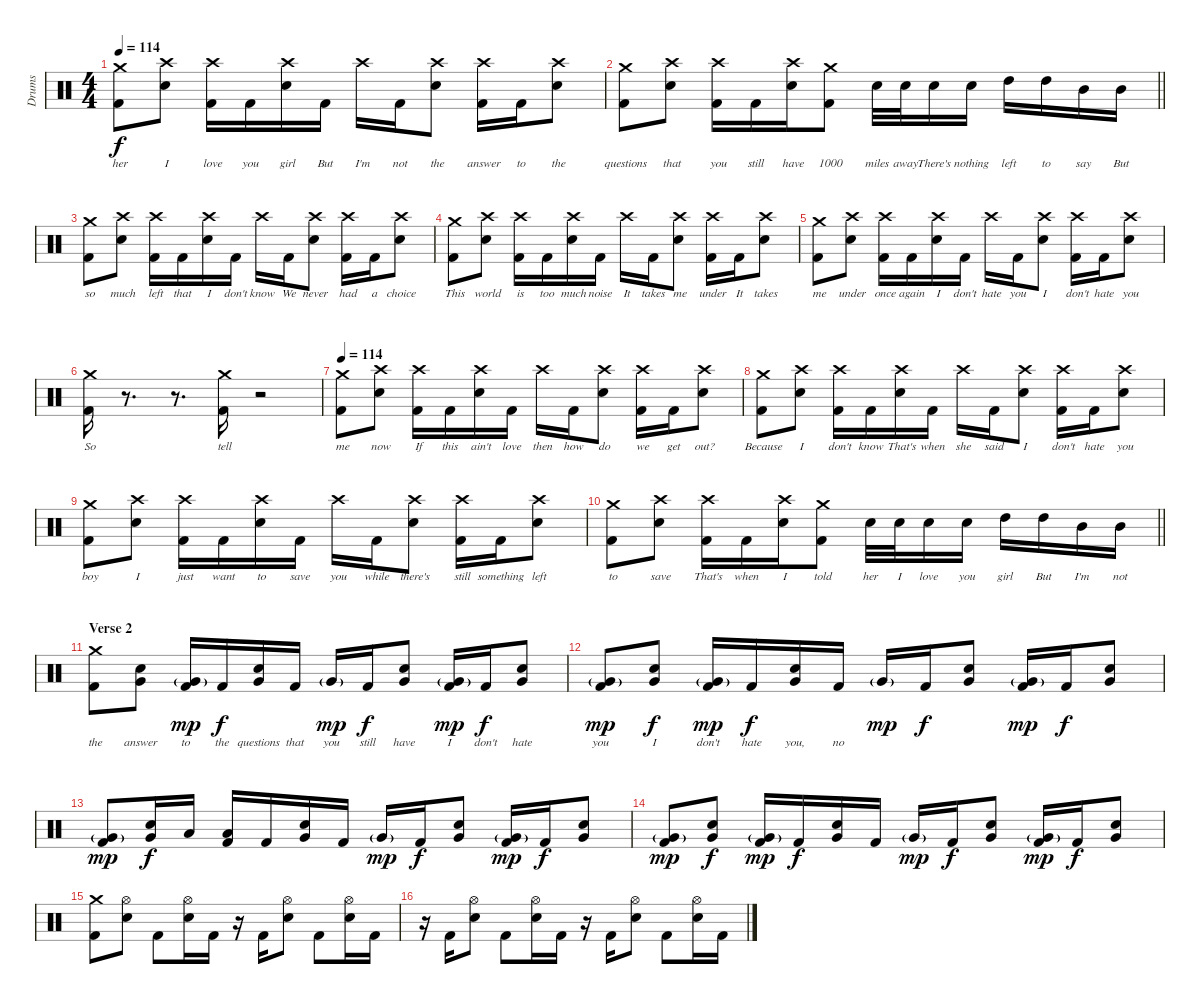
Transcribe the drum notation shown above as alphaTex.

\track ("Drums" "Drums") {instrument percussion}
\staff {score}
\articulation defaults
\ts (4 4)
\tempo 114
\clef neutral
\ks c
("Crash medium (hit)" "Kick (hit) 2").8{lyrics (0 "her") lyrics (1 "") lyrics (2 "") lyrics (3 "") lyrics (4 "") dy f} ("Crash high (hit)" "Electric Snare (hit)").8{lyrics (0 "I") lyrics (1 "") lyrics (2 "") lyrics (3 "") lyrics (4 "")} ("Crash high (hit)" "Kick (hit) 2").16{lyrics (0 "love") lyrics (1 "") lyrics (2 "") lyrics (3 "") lyrics (4 "")} "Kick (hit) 2".16{lyrics (0 "you") lyrics (1 "") lyrics (2 "") lyrics (3 "") lyrics (4 "")} ("Crash high (hit)" "Electric Snare (hit)").16{lyrics (0 "girl") lyrics (1 "") lyrics (2 "") lyrics (3 "") lyrics (4 "")} "Kick (hit) 2".16{lyrics (0 "But") lyrics (1 "") lyrics (2 "") lyrics (3 "") lyrics (4 "")} "Crash high (hit)".16{lyrics (0 "I'm") lyrics (1 "") lyrics (2 "") lyrics (3 "") lyrics (4 "")} "Kick (hit) 2".16{lyrics (0 "not") lyrics (1 "") lyrics (2 "") lyrics (3 "") lyrics (4 "")} ("Crash high (hit)" "Electric Snare (hit)").8{lyrics (0 "the") lyrics (1 "") lyrics (2 "") lyrics (3 "") lyrics (4 "")} ("Crash high (hit)" "Kick (hit) 2").16{lyrics (0 "answer") lyrics (1 "") lyrics (2 "") lyrics (3 "") lyrics (4 "")} "Kick (hit) 2".16{lyrics (0 "to") lyrics (1 "") lyrics (2 "") lyrics (3 "") lyrics (4 "")} ("Crash high (hit)" "Electric Snare (hit)").8{lyrics (0 "the") lyrics (1 "") lyrics (2 "") lyrics (3 "") lyrics (4 "")} |
\barLineRight lightlight
("Crash medium (hit)" "Kick (hit) 2").8{lyrics (0 "questions") lyrics (1 "") lyrics (2 "") lyrics (3 "") lyrics (4 "")} ("Crash high (hit)" "Electric Snare (hit)").8{lyrics (0 "that") lyrics (1 "") lyrics (2 "") lyrics (3 "") lyrics (4 "")} ("Crash high (hit)" "Kick (hit) 2").16{lyrics (0 "you") lyrics (1 "") lyrics (2 "") lyrics (3 "") lyrics (4 "")} "Kick (hit) 2".16{lyrics (0 "still") lyrics (1 "") lyrics (2 "") lyrics (3 "") lyrics (4 "")} ("Crash high (hit)" "Electric Snare (hit)").16{lyrics (0 "have") lyrics (1 "") lyrics (2 "") lyrics (3 "") lyrics (4 "")} ("Crash medium (hit)" "Kick (hit) 2").8{lyrics (0 "1000") lyrics (1 "") lyrics (2 "") lyrics (3 "") lyrics (4 "")} "Electric Snare (hit)".32{lyrics (0 "miles") lyrics (1 "") lyrics (2 "") lyrics (3 "") lyrics (4 "")} "Electric Snare (hit)".32{lyrics (0 "away") lyrics (1 "") lyrics (2 "") lyrics (3 "") lyrics (4 "")} "Electric Snare (hit)".16{lyrics (0 "There's") lyrics (1 "") lyrics (2 "") lyrics (3 "") lyrics (4 "")} "Electric Snare (hit)".16{lyrics (0 "nothing") lyrics (1 "") lyrics (2 "") lyrics (3 "") lyrics (4 "")} "High Tom (hit)".16{lyrics (0 "left") lyrics (1 "") lyrics (2 "") lyrics (3 "") lyrics (4 "")} "High Tom (hit)".16{lyrics (0 "to") lyrics (1 "") lyrics (2 "") lyrics (3 "") lyrics (4 "")} "Mid Tom (hit)".16{lyrics (0 "say") lyrics (1 "") lyrics (2 "") lyrics (3 "") lyrics (4 "")} "Mid Tom (hit)".16{lyrics (0 "But") lyrics (1 "") lyrics (2 "") lyrics (3 "") lyrics (4 "")} |
("Crash medium (hit)" "Kick (hit) 2").8{lyrics (0 "so") lyrics (1 "") lyrics (2 "") lyrics (3 "") lyrics (4 "")} ("Crash high (hit)" "Electric Snare (hit)").8{lyrics (0 "much") lyrics (1 "") lyrics (2 "") lyrics (3 "") lyrics (4 "")} ("Crash high (hit)" "Kick (hit) 2").16{lyrics (0 "left") lyrics (1 "") lyrics (2 "") lyrics (3 "") lyrics (4 "")} "Kick (hit) 2".16{lyrics (0 "that") lyrics (1 "") lyrics (2 "") lyrics (3 "") lyrics (4 "")} ("Crash high (hit)" "Electric Snare (hit)").16{lyrics (0 "I") lyrics (1 "") lyrics (2 "") lyrics (3 "") lyrics (4 "")} "Kick (hit) 2".16{lyrics (0 "don't") lyrics (1 "") lyrics (2 "") lyrics (3 "") lyrics (4 "")} "Crash high (hit)".16{lyrics (0 "know") lyrics (1 "") lyrics (2 "") lyrics (3 "") lyrics (4 "")} "Kick (hit) 2".16{lyrics (0 "We") lyrics (1 "") lyrics (2 "") lyrics (3 "") lyrics (4 "")} ("Crash high (hit)" "Electric Snare (hit)").8{lyrics (0 "never") lyrics (1 "") lyrics (2 "") lyrics (3 "") lyrics (4 "")} ("Crash high (hit)" "Kick (hit) 2").16{lyrics (0 "had") lyrics (1 "") lyrics (2 "") lyrics (3 "") lyrics (4 "")} "Kick (hit) 2".16{lyrics (0 "a") lyrics (1 "") lyrics (2 "") lyrics (3 "") lyrics (4 "")} ("Crash high (hit)" "Electric Snare (hit)").8{lyrics (0 "choice") lyrics (1 "") lyrics (2 "") lyrics (3 "") lyrics (4 "")} |
("Crash medium (hit)" "Kick (hit) 2").8{lyrics (0 "This") lyrics (1 "") lyrics (2 "") lyrics (3 "") lyrics (4 "")} ("Crash high (hit)" "Electric Snare (hit)").8{lyrics (0 "world") lyrics (1 "") lyrics (2 "") lyrics (3 "") lyrics (4 "")} ("Crash high (hit)" "Kick (hit) 2").16{lyrics (0 "is") lyrics (1 "") lyrics (2 "") lyrics (3 "") lyrics (4 "")} "Kick (hit) 2".16{lyrics (0 "too") lyrics (1 "") lyrics (2 "") lyrics (3 "") lyrics (4 "")} ("Crash high (hit)" "Electric Snare (hit)").16{lyrics (0 "much") lyrics (1 "") lyrics (2 "") lyrics (3 "") lyrics (4 "")} "Kick (hit) 2".16{lyrics (0 "noise") lyrics (1 "") lyrics (2 "") lyrics (3 "") lyrics (4 "")} "Crash high (hit)".16{lyrics (0 "It") lyrics (1 "") lyrics (2 "") lyrics (3 "") lyrics (4 "")} "Kick (hit) 2".16{lyrics (0 "takes") lyrics (1 "") lyrics (2 "") lyrics (3 "") lyrics (4 "")} ("Crash high (hit)" "Electric Snare (hit)").8{lyrics (0 "me") lyrics (1 "") lyrics (2 "") lyrics (3 "") lyrics (4 "")} ("Crash high (hit)" "Kick (hit) 2").16{lyrics (0 "under") lyrics (1 "") lyrics (2 "") lyrics (3 "") lyrics (4 "")} "Kick (hit) 2".16{lyrics (0 "It") lyrics (1 "") lyrics (2 "") lyrics (3 "") lyrics (4 "")} ("Crash high (hit)" "Electric Snare (hit)").8{lyrics (0 "takes") lyrics (1 "") lyrics (2 "") lyrics (3 "") lyrics (4 "")} |
("Crash medium (hit)" "Kick (hit) 2").8{lyrics (0 "me") lyrics (1 "") lyrics (2 "") lyrics (3 "") lyrics (4 "")} ("Crash high (hit)" "Electric Snare (hit)").8{lyrics (0 "under") lyrics (1 "") lyrics (2 "") lyrics (3 "") lyrics (4 "")} ("Crash high (hit)" "Kick (hit) 2").16{lyrics (0 "once") lyrics (1 "") lyrics (2 "") lyrics (3 "") lyrics (4 "")} "Kick (hit) 2".16{lyrics (0 "again") lyrics (1 "") lyrics (2 "") lyrics (3 "") lyrics (4 "")} ("Crash high (hit)" "Electric Snare (hit)").16{lyrics (0 "I") lyrics (1 "") lyrics (2 "") lyrics (3 "") lyrics (4 "")} "Kick (hit) 2".16{lyrics (0 "don't") lyrics (1 "") lyrics (2 "") lyrics (3 "") lyrics (4 "")} "Crash high (hit)".16{lyrics (0 "hate") lyrics (1 "") lyrics (2 "") lyrics (3 "") lyrics (4 "")} "Kick (hit) 2".16{lyrics (0 "you") lyrics (1 "") lyrics (2 "") lyrics (3 "") lyrics (4 "")} ("Crash high (hit)" "Electric Snare (hit)").8{lyrics (0 "I") lyrics (1 "") lyrics (2 "") lyrics (3 "") lyrics (4 "")} ("Crash high (hit)" "Kick (hit) 2").16{lyrics (0 "don't") lyrics (1 "") lyrics (2 "") lyrics (3 "") lyrics (4 "")} "Kick (hit) 2".16{lyrics (0 "hate") lyrics (1 "") lyrics (2 "") lyrics (3 "") lyrics (4 "")} ("Crash high (hit)" "Electric Snare (hit)").8{lyrics (0 "you") lyrics (1 "") lyrics (2 "") lyrics (3 "") lyrics (4 "")} |
("Crash medium (hit)" "Kick (hit) 2").16{lyrics (0 "So") lyrics (1 "") lyrics (2 "") lyrics (3 "") lyrics (4 "")} r.8{d} r.8{d} ("Crash medium (hit)" "Kick (hit) 2").16{lyrics (0 "tell") lyrics (1 "") lyrics (2 "") lyrics (3 "") lyrics (4 "")} r.2 |
\tempo 114
("Crash medium (hit)" "Kick (hit) 2").8{lyrics (0 "me") lyrics (1 "") lyrics (2 "") lyrics (3 "") lyrics (4 "")} ("Crash high (hit)" "Electric Snare (hit)").8{lyrics (0 "now") lyrics (1 "") lyrics (2 "") lyrics (3 "") lyrics (4 "")} ("Crash high (hit)" "Kick (hit) 2").16{lyrics (0 "If") lyrics (1 "") lyrics (2 "") lyrics (3 "") lyrics (4 "")} "Kick (hit) 2".16{lyrics (0 "this") lyrics (1 "") lyrics (2 "") lyrics (3 "") lyrics (4 "")} ("Crash high (hit)" "Electric Snare (hit)").16{lyrics (0 "ain't") lyrics (1 "") lyrics (2 "") lyrics (3 "") lyrics (4 "")} "Kick (hit) 2".16{lyrics (0 "love") lyrics (1 "") lyrics (2 "") lyrics (3 "") lyrics (4 "")} "Crash high (hit)".16{lyrics (0 "then") lyrics (1 "") lyrics (2 "") lyrics (3 "") lyrics (4 "")} "Kick (hit) 2".16{lyrics (0 "how") lyrics (1 "") lyrics (2 "") lyrics (3 "") lyrics (4 "")} ("Crash high (hit)" "Electric Snare (hit)").8{lyrics (0 "do") lyrics (1 "") lyrics (2 "") lyrics (3 "") lyrics (4 "")} ("Crash high (hit)" "Kick (hit) 2").16{lyrics (0 "we") lyrics (1 "") lyrics (2 "") lyrics (3 "") lyrics (4 "")} "Kick (hit) 2".16{lyrics (0 "get") lyrics (1 "") lyrics (2 "") lyrics (3 "") lyrics (4 "")} ("Crash high (hit)" "Electric Snare (hit)").8{lyrics (0 "out?") lyrics (1 "") lyrics (2 "") lyrics (3 "") lyrics (4 "")} |
("Crash medium (hit)" "Kick (hit) 2").8{lyrics (0 "Because") lyrics (1 "") lyrics (2 "") lyrics (3 "") lyrics (4 "")} ("Crash high (hit)" "Electric Snare (hit)").8{lyrics (0 "I") lyrics (1 "") lyrics (2 "") lyrics (3 "") lyrics (4 "")} ("Crash high (hit)" "Kick (hit) 2").16{lyrics (0 "don't") lyrics (1 "") lyrics (2 "") lyrics (3 "") lyrics (4 "")} "Kick (hit) 2".16{lyrics (0 "know") lyrics (1 "") lyrics (2 "") lyrics (3 "") lyrics (4 "")} ("Crash high (hit)" "Electric Snare (hit)").16{lyrics (0 "That's") lyrics (1 "") lyrics (2 "") lyrics (3 "") lyrics (4 "")} "Kick (hit) 2".16{lyrics (0 "when") lyrics (1 "") lyrics (2 "") lyrics (3 "") lyrics (4 "")} "Crash high (hit)".16{lyrics (0 "she") lyrics (1 "") lyrics (2 "") lyrics (3 "") lyrics (4 "")} "Kick (hit) 2".16{lyrics (0 "said") lyrics (1 "") lyrics (2 "") lyrics (3 "") lyrics (4 "")} ("Crash high (hit)" "Electric Snare (hit)").8{lyrics (0 "I") lyrics (1 "") lyrics (2 "") lyrics (3 "") lyrics (4 "")} ("Crash high (hit)" "Kick (hit) 2").16{lyrics (0 "don't") lyrics (1 "") lyrics (2 "") lyrics (3 "") lyrics (4 "")} "Kick (hit) 2".16{lyrics (0 "hate") lyrics (1 "") lyrics (2 "") lyrics (3 "") lyrics (4 "")} ("Crash high (hit)" "Electric Snare (hit)").8{lyrics (0 "you") lyrics (1 "") lyrics (2 "") lyrics (3 "") lyrics (4 "")} |
("Crash medium (hit)" "Kick (hit) 2").8{lyrics (0 "boy") lyrics (1 "") lyrics (2 "") lyrics (3 "") lyrics (4 "")} ("Crash high (hit)" "Electric Snare (hit)").8{lyrics (0 "I") lyrics (1 "") lyrics (2 "") lyrics (3 "") lyrics (4 "")} ("Crash high (hit)" "Kick (hit) 2").16{lyrics (0 "just") lyrics (1 "") lyrics (2 "") lyrics (3 "") lyrics (4 "")} "Kick (hit) 2".16{lyrics (0 "want") lyrics (1 "") lyrics (2 "") lyrics (3 "") lyrics (4 "")} ("Crash high (hit)" "Electric Snare (hit)").16{lyrics (0 "to") lyrics (1 "") lyrics (2 "") lyrics (3 "") lyrics (4 "")} "Kick (hit) 2".16{lyrics (0 "save") lyrics (1 "") lyrics (2 "") lyrics (3 "") lyrics (4 "")} "Crash high (hit)".16{lyrics (0 "you") lyrics (1 "") lyrics (2 "") lyrics (3 "") lyrics (4 "")} "Kick (hit) 2".16{lyrics (0 "while") lyrics (1 "") lyrics (2 "") lyrics (3 "") lyrics (4 "")} ("Crash high (hit)" "Electric Snare (hit)").8{lyrics (0 "there's") lyrics (1 "") lyrics (2 "") lyrics (3 "") lyrics (4 "")} ("Crash high (hit)" "Kick (hit) 2").16{lyrics (0 "still") lyrics (1 "") lyrics (2 "") lyrics (3 "") lyrics (4 "")} "Kick (hit) 2".16{lyrics (0 "something") lyrics (1 "") lyrics (2 "") lyrics (3 "") lyrics (4 "")} ("Crash high (hit)" "Electric Snare (hit)").8{lyrics (0 "left") lyrics (1 "") lyrics (2 "") lyrics (3 "") lyrics (4 "")} |
\barLineRight lightlight
("Crash medium (hit)" "Kick (hit) 2").8{lyrics (0 "to") lyrics (1 "") lyrics (2 "") lyrics (3 "") lyrics (4 "")} ("Crash high (hit)" "Electric Snare (hit)").8{lyrics (0 "save") lyrics (1 "") lyrics (2 "") lyrics (3 "") lyrics (4 "")} ("Crash high (hit)" "Kick (hit) 2").16{lyrics (0 "That's") lyrics (1 "") lyrics (2 "") lyrics (3 "") lyrics (4 "")} "Kick (hit) 2".16{lyrics (0 "when") lyrics (1 "") lyrics (2 "") lyrics (3 "") lyrics (4 "")} ("Crash high (hit)" "Electric Snare (hit)").16{lyrics (0 "I") lyrics (1 "") lyrics (2 "") lyrics (3 "") lyrics (4 "")} ("Crash medium (hit)" "Kick (hit) 2").8{lyrics (0 "told") lyrics (1 "") lyrics (2 "") lyrics (3 "") lyrics (4 "")} "Electric Snare (hit)".32{lyrics (0 "her") lyrics (1 "") lyrics (2 "") lyrics (3 "") lyrics (4 "")} "Electric Snare (hit)".32{lyrics (0 "I") lyrics (1 "") lyrics (2 "") lyrics (3 "") lyrics (4 "")} "Electric Snare (hit)".16{lyrics (0 "love") lyrics (1 "") lyrics (2 "") lyrics (3 "") lyrics (4 "")} "Electric Snare (hit)".16{lyrics (0 "you") lyrics (1 "") lyrics (2 "") lyrics (3 "") lyrics (4 "")} "High Tom (hit)".16{lyrics (0 "girl") lyrics (1 "") lyrics (2 "") lyrics (3 "") lyrics (4 "")} "High Tom (hit)".16{lyrics (0 "But") lyrics (1 "") lyrics (2 "") lyrics (3 "") lyrics (4 "")} "Mid Tom (hit)".16{lyrics (0 "I'm") lyrics (1 "") lyrics (2 "") lyrics (3 "") lyrics (4 "")} "Mid Tom (hit)".16{lyrics (0 "not") lyrics (1 "") lyrics (2 "") lyrics (3 "") lyrics (4 "")} |
\section ("" "Verse 2")
("Crash medium (hit)" "Kick (hit) 2").8{lyrics (0 "the") lyrics (1 "") lyrics (2 "") lyrics (3 "") lyrics (4 "")} ("Very Low Tom (hit)" "Electric Snare (hit)").8{lyrics (0 "answer") lyrics (1 "") lyrics (2 "") lyrics (3 "") lyrics (4 "")} ("Very Low Tom (hit)"{g} "Kick (hit) 2").16{lyrics (0 "to") lyrics (1 "") lyrics (2 "") lyrics (3 "") lyrics (4 "") dy mp} "Kick (hit) 2".16{lyrics (0 "the") lyrics (1 "") lyrics (2 "") lyrics (3 "") lyrics (4 "") dy f} ("Very Low Tom (hit)" "Electric Snare (hit)").16{lyrics (0 "questions") lyrics (1 "") lyrics (2 "") lyrics (3 "") lyrics (4 "")} "Kick (hit) 2".16{lyrics (0 "that") lyrics (1 "") lyrics (2 "") lyrics (3 "") lyrics (4 "")} "Very Low Tom (hit)"{g}.16{lyrics (0 "you") lyrics (1 "") lyrics (2 "") lyrics (3 "") lyrics (4 "") dy mp} "Kick (hit) 2".16{lyrics (0 "still") lyrics (1 "") lyrics (2 "") lyrics (3 "") lyrics (4 "") dy f} ("Very Low Tom (hit)" "Electric Snare (hit)").8{lyrics (0 "have") lyrics (1 "") lyrics (2 "") lyrics (3 "") lyrics (4 "")} ("Very Low Tom (hit)"{g} "Kick (hit) 2").16{lyrics (0 "I") lyrics (1 "") lyrics (2 "") lyrics (3 "") lyrics (4 "") dy mp} "Kick (hit) 2".16{lyrics (0 "don't") lyrics (1 "") lyrics (2 "") lyrics (3 "") lyrics (4 "") dy f} ("Very Low Tom (hit)" "Electric Snare (hit)").8{lyrics (0 "hate") lyrics (1 "") lyrics (2 "") lyrics (3 "") lyrics (4 "")} |
("Very Low Tom (hit)"{g} "Kick (hit) 2").8{lyrics (0 "you") lyrics (1 "") lyrics (2 "") lyrics (3 "") lyrics (4 "") dy mp} ("Very Low Tom (hit)" "Electric Snare (hit)").8{lyrics (0 "I") lyrics (1 "") lyrics (2 "") lyrics (3 "") lyrics (4 "") dy f} ("Very Low Tom (hit)"{g} "Kick (hit) 2").16{lyrics (0 "don't") lyrics (1 "") lyrics (2 "") lyrics (3 "") lyrics (4 "") dy mp} "Kick (hit) 2".16{lyrics (0 "hate") lyrics (1 "") lyrics (2 "") lyrics (3 "") lyrics (4 "") dy f} ("Very Low Tom (hit)" "Electric Snare (hit)").16{lyrics (0 "you,") lyrics (1 "") lyrics (2 "") lyrics (3 "") lyrics (4 "")} "Kick (hit) 2".16{lyrics (0 "no") lyrics (1 "") lyrics (2 "") lyrics (3 "") lyrics (4 "")} "Very Low Tom (hit)"{g}.16{dy mp} "Kick (hit) 2".16{dy f} ("Very Low Tom (hit)" "Electric Snare (hit)").8 ("Very Low Tom (hit)"{g} "Kick (hit) 2").16{dy mp} "Kick (hit) 2".16{dy f} ("Very Low Tom (hit)" "Electric Snare (hit)").8 |
("Very Low Tom (hit)"{g} "Kick (hit) 2").8{dy mp} ("Very Low Tom (hit)" "Electric Snare (hit)").16{dy f} "Low Tom (hit)".16 ("Low Tom (hit)" "Kick (hit) 2").16 "Kick (hit) 2".16 ("Very Low Tom (hit)" "Electric Snare (hit)").16 "Kick (hit) 2".16 "Very Low Tom (hit)"{g}.16{dy mp} "Kick (hit) 2".16{dy f} ("Very Low Tom (hit)" "Electric Snare (hit)").8 ("Very Low Tom (hit)"{g} "Kick (hit) 2").16{dy mp} "Kick (hit) 2".16{dy f} ("Very Low Tom (hit)" "Electric Snare (hit)").8 |
("Very Low Tom (hit)"{g} "Kick (hit) 2").8{dy mp} ("Very Low Tom (hit)" "Electric Snare (hit)").8{dy f} ("Very Low Tom (hit)"{g} "Kick (hit) 2").16{dy mp} "Kick (hit) 2".16{dy f} ("Very Low Tom (hit)" "Electric Snare (hit)").16 "Kick (hit) 2".16 "Very Low Tom (hit)"{g}.16{dy mp} "Kick (hit) 2".16{dy f} ("Very Low Tom (hit)" "Electric Snare (hit)").8 ("Very Low Tom (hit)"{g} "Kick (hit) 2").16{dy mp} "Kick (hit) 2".16{dy f} ("Very Low Tom (hit)" "Electric Snare (hit)").8 |
("Crash medium (hit)" "Kick (hit) 2").8 ("Hi-Hat (open)" "Electric Snare (hit)").8 "Kick (hit) 2".8 ("Hi-Hat (open)" "Electric Snare (hit)").16 "Kick (hit) 2".16 r.16 "Kick (hit) 2".16 ("Hi-Hat (open)" "Electric Snare (hit)").8 "Kick (hit) 2".8 ("Hi-Hat (open)" "Electric Snare (hit)").16 "Kick (hit) 2".16 |
r.16 "Kick (hit) 2".16 ("Hi-Hat (open)" "Electric Snare (hit)").8 "Kick (hit) 2".8 ("Hi-Hat (open)" "Electric Snare (hit)").16 "Kick (hit) 2".16 r.16 "Kick (hit) 2".16 ("Hi-Hat (open)" "Electric Snare (hit)").8 "Kick (hit) 2".8 ("Hi-Hat (open)" "Electric Snare (hit)").16 "Kick (hit) 2".16
